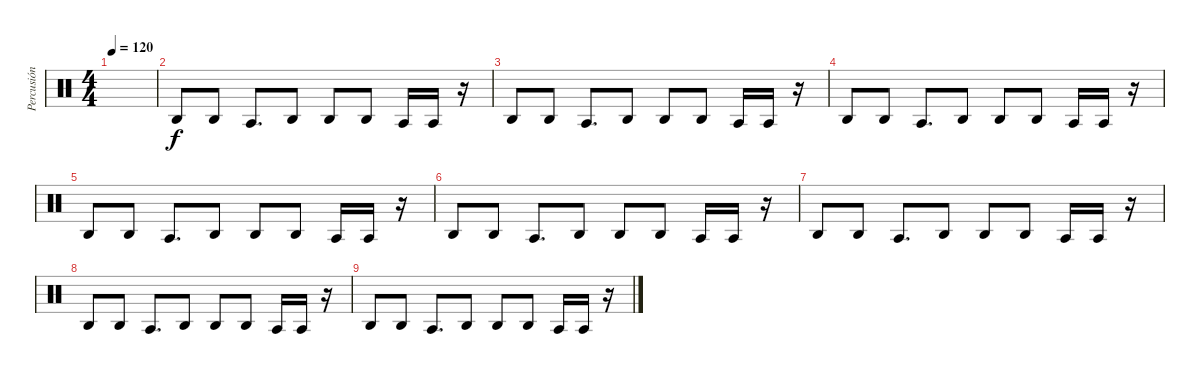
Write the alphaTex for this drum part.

\track ("Percusión" "Percusión") {instrument percussion}
\staff {score}
\articulation defaults
\ts (4 4)
\tempo 120
\clef neutral
\ks c
|
"Agogo high (hit)".8 "Agogo high (hit)".8 "Agogo tow (hit)".8{d} "Agogo high (hit)".8 "Agogo high (hit)".8 "Agogo high (hit)".8 "Agogo tow (hit)".16 "Agogo tow (hit)".16 r.16 |
"Agogo high (hit)".8 "Agogo high (hit)".8 "Agogo tow (hit)".8{d} "Agogo high (hit)".8 "Agogo high (hit)".8 "Agogo high (hit)".8 "Agogo tow (hit)".16 "Agogo tow (hit)".16 r.16 |
"Agogo high (hit)".8 "Agogo high (hit)".8 "Agogo tow (hit)".8{d} "Agogo high (hit)".8 "Agogo high (hit)".8 "Agogo high (hit)".8 "Agogo tow (hit)".16 "Agogo tow (hit)".16 r.16 |
"Agogo high (hit)".8 "Agogo high (hit)".8 "Agogo tow (hit)".8{d} "Agogo high (hit)".8 "Agogo high (hit)".8 "Agogo high (hit)".8 "Agogo tow (hit)".16 "Agogo tow (hit)".16 r.16 |
"Agogo high (hit)".8 "Agogo high (hit)".8 "Agogo tow (hit)".8{d} "Agogo high (hit)".8 "Agogo high (hit)".8 "Agogo high (hit)".8 "Agogo tow (hit)".16 "Agogo tow (hit)".16 r.16 |
"Agogo high (hit)".8 "Agogo high (hit)".8 "Agogo tow (hit)".8{d} "Agogo high (hit)".8 "Agogo high (hit)".8 "Agogo high (hit)".8 "Agogo tow (hit)".16 "Agogo tow (hit)".16 r.16 |
"Agogo high (hit)".8 "Agogo high (hit)".8 "Agogo tow (hit)".8{d} "Agogo high (hit)".8 "Agogo high (hit)".8 "Agogo high (hit)".8 "Agogo tow (hit)".16 "Agogo tow (hit)".16 r.16 |
"Agogo high (hit)".8 "Agogo high (hit)".8 "Agogo tow (hit)".8{d} "Agogo high (hit)".8 "Agogo high (hit)".8 "Agogo high (hit)".8 "Agogo tow (hit)".16 "Agogo tow (hit)".16 r.16
